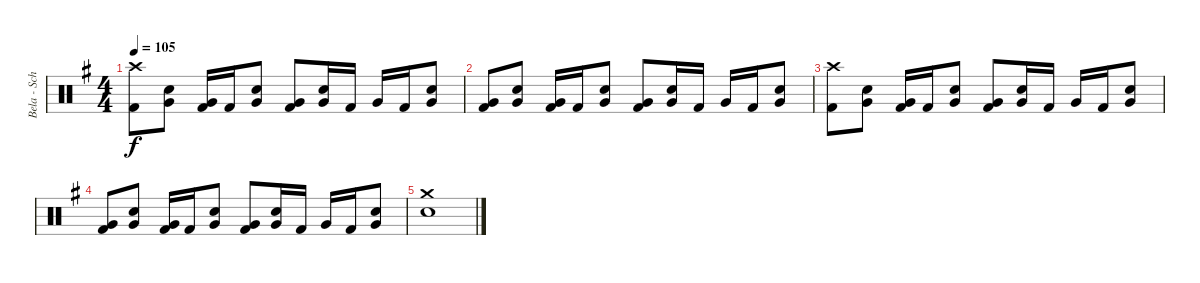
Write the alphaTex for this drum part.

\track ("Bela - Schlagzeug" "Bela - Sch") {instrument percussion}
\staff {score}
\articulation defaults
\ts (4 4)
\tempo 105
\clef neutral
\ks g
("Crash high (hit)" "Kick (hit) 2").8{dy f} ("Very Low Tom (hit)" "Snare (hit) 2").8 ("Very Low Tom (hit)" "Kick (hit) 2").16 "Kick (hit) 2".16 ("Very Low Tom (hit)" "Snare (hit) 2").8 ("Very Low Tom (hit)" "Kick (hit) 2").8 ("Very Low Tom (hit)" "Snare (hit) 2").16 "Kick (hit) 2".16 "Very Low Tom (hit)".16 "Kick (hit) 2".16 ("Very Low Tom (hit)" "Snare (hit) 2").8 |
("Very Low Tom (hit)" "Kick (hit) 2").8 ("Very Low Tom (hit)" "Snare (hit) 2").8 ("Very Low Tom (hit)" "Kick (hit) 2").16 "Kick (hit) 2".16 ("Very Low Tom (hit)" "Snare (hit) 2").8 ("Very Low Tom (hit)" "Kick (hit) 2").8 ("Very Low Tom (hit)" "Snare (hit) 2").16 "Kick (hit) 2".16 "Very Low Tom (hit)".16 "Kick (hit) 2".16 ("Very Low Tom (hit)" "Snare (hit) 2").8 |
("Crash high (hit)" "Kick (hit) 2").8 ("Very Low Tom (hit)" "Snare (hit) 2").8 ("Very Low Tom (hit)" "Kick (hit) 2").16 "Kick (hit) 2".16 ("Very Low Tom (hit)" "Snare (hit) 2").8 ("Very Low Tom (hit)" "Kick (hit) 2").8 ("Very Low Tom (hit)" "Snare (hit) 2").16 "Kick (hit) 2".16 "Very Low Tom (hit)".16 "Kick (hit) 2".16 ("Very Low Tom (hit)" "Snare (hit) 2").8 |
("Very Low Tom (hit)" "Kick (hit) 2").8 ("Very Low Tom (hit)" "Snare (hit) 2").8 ("Very Low Tom (hit)" "Kick (hit) 2").16 "Kick (hit) 2".16 ("Very Low Tom (hit)" "Snare (hit) 2").8 ("Very Low Tom (hit)" "Kick (hit) 2").8 ("Very Low Tom (hit)" "Snare (hit) 2").16 "Kick (hit) 2".16 "Very Low Tom (hit)".16 "Kick (hit) 2".16 ("Very Low Tom (hit)" "Snare (hit) 2").8 |
("Crash medium (hit)" "Snare (hit) 2").1
